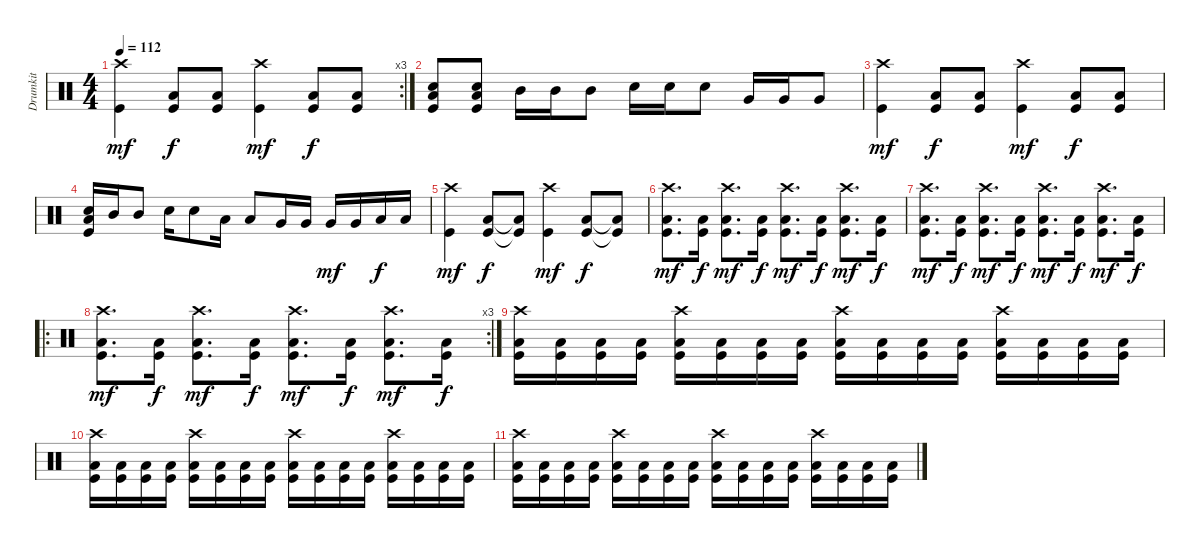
\track ("Drumkit" "Drumkit") {instrument percussion}
\staff {score}
\articulation defaults
\rc 3
\ts (4 4)
\tempo 112
\clef neutral
\ks c
("Crash high (hit)" "Kick (hit)").4{dy mf} ("Low Floor Tom (hit)" "Kick (hit)").8{dy f} ("Low Floor Tom (hit)" "Kick (hit)").8 ("Crash high (hit)" "Kick (hit)").4{dy mf} ("Low Floor Tom (hit)" "Kick (hit)").8{dy f} ("Low Floor Tom (hit)" "Kick (hit)").8 |
("Low Floor Tom (hit)" "Snare (hit) 2" "Kick (hit)").8 ("Low Floor Tom (hit)" "Snare (hit) 2" "Kick (hit)").8 "Mid Tom (hit)".16 "Mid Tom (hit)".16 "Mid Tom (hit)".8 "Snare (hit) 2".16 "Snare (hit) 2".16 "Snare (hit) 2".8 "Very Low Tom (hit)".16 "Very Low Tom (hit)".16 "Very Low Tom (hit)".8 |
("Crash high (hit)" "Kick (hit)").4{dy mf} ("Low Floor Tom (hit)" "Kick (hit)").8{dy f} ("Low Floor Tom (hit)" "Kick (hit)").8 ("Crash high (hit)" "Kick (hit)").4{dy mf} ("Low Floor Tom (hit)" "Kick (hit)").8{dy f} ("Low Floor Tom (hit)" "Kick (hit)").8 |
("Snare (hit) 2" "Low Floor Tom (hit)" "Kick (hit)").16 "Mid Tom (hit)".16 "Mid Tom (hit)".8 "Snare (hit) 2".16 "Snare (hit) 2".8 "Low Tom (hit)".16 "Low Tom (hit)".8 "Very Low Tom (hit)".16 "Very Low Tom (hit)".16 "Very Low Tom (hit)".16{dy mf} "Very Low Tom (hit)".16 "Low Floor Tom (hit)".16{dy f} "Low Floor Tom (hit)".16 |
("Crash high (hit)" "Kick (hit)").4{dy mf} ("Low Floor Tom (hit)" "Kick (hit)").8{dy f} ("Low Floor Tom (hit)"{t} "Kick (hit)"{t}).8 ("Crash high (hit)" "Kick (hit)").4{dy mf} ("Low Floor Tom (hit)" "Kick (hit)").8{dy f} ("Low Floor Tom (hit)"{t} "Kick (hit)"{t}).8 |
("Crash high (hit)" "Low Floor Tom (hit)" "Kick (hit)").8{d dy mf} ("Low Floor Tom (hit)" "Kick (hit)").16{dy f} ("Crash high (hit)" "Low Floor Tom (hit)" "Kick (hit)").8{d dy mf} ("Low Floor Tom (hit)" "Kick (hit)").16{dy f} ("Crash high (hit)" "Low Floor Tom (hit)" "Kick (hit)").8{d dy mf} ("Low Floor Tom (hit)" "Kick (hit)").16{dy f} ("Crash high (hit)" "Low Floor Tom (hit)" "Kick (hit)").8{d dy mf} ("Low Floor Tom (hit)" "Kick (hit)").16{dy f} |
("Crash high (hit)" "Low Floor Tom (hit)" "Kick (hit)").8{d dy mf} ("Low Floor Tom (hit)" "Kick (hit)").16{dy f} ("Crash high (hit)" "Low Floor Tom (hit)" "Kick (hit)").8{d dy mf} ("Low Floor Tom (hit)" "Kick (hit)").16{dy f} ("Crash high (hit)" "Low Floor Tom (hit)" "Kick (hit)").8{d dy mf} ("Low Floor Tom (hit)" "Kick (hit)").16{dy f} ("Crash high (hit)" "Low Floor Tom (hit)" "Kick (hit)").8{d dy mf} ("Low Floor Tom (hit)" "Kick (hit)").16{dy f} |
\ro
\rc 3
("Crash high (hit)" "Low Floor Tom (hit)" "Kick (hit)").8{d dy mf} ("Low Floor Tom (hit)" "Kick (hit)").16{dy f} ("Crash high (hit)" "Low Floor Tom (hit)" "Kick (hit)").8{d dy mf} ("Low Floor Tom (hit)" "Kick (hit)").16{dy f} ("Crash high (hit)" "Low Floor Tom (hit)" "Kick (hit)").8{d dy mf} ("Low Floor Tom (hit)" "Kick (hit)").16{dy f} ("Crash high (hit)" "Low Floor Tom (hit)" "Kick (hit)").8{d dy mf} ("Low Floor Tom (hit)" "Kick (hit)").16{dy f} |
("Crash high (hit)" "Low Floor Tom (hit)" "Kick (hit)").16 ("Low Floor Tom (hit)" "Kick (hit)").16 ("Low Floor Tom (hit)" "Kick (hit)").16 ("Low Floor Tom (hit)" "Kick (hit)").16 ("Crash high (hit)" "Low Floor Tom (hit)" "Kick (hit)").16 ("Low Floor Tom (hit)" "Kick (hit)").16 ("Low Floor Tom (hit)" "Kick (hit)").16 ("Low Floor Tom (hit)" "Kick (hit)").16 ("Crash high (hit)" "Low Floor Tom (hit)" "Kick (hit)").16 ("Low Floor Tom (hit)" "Kick (hit)").16 ("Low Floor Tom (hit)" "Kick (hit)").16 ("Low Floor Tom (hit)" "Kick (hit)").16 ("Crash high (hit)" "Low Floor Tom (hit)" "Kick (hit)").16 ("Low Floor Tom (hit)" "Kick (hit)").16 ("Low Floor Tom (hit)" "Kick (hit)").16 ("Low Floor Tom (hit)" "Kick (hit)").16 |
("Crash high (hit)" "Low Floor Tom (hit)" "Kick (hit)").16 ("Low Floor Tom (hit)" "Kick (hit)").16 ("Low Floor Tom (hit)" "Kick (hit)").16 ("Low Floor Tom (hit)" "Kick (hit)").16 ("Crash high (hit)" "Low Floor Tom (hit)" "Kick (hit)").16 ("Low Floor Tom (hit)" "Kick (hit)").16 ("Low Floor Tom (hit)" "Kick (hit)").16 ("Low Floor Tom (hit)" "Kick (hit)").16 ("Crash high (hit)" "Low Floor Tom (hit)" "Kick (hit)").16 ("Low Floor Tom (hit)" "Kick (hit)").16 ("Low Floor Tom (hit)" "Kick (hit)").16 ("Low Floor Tom (hit)" "Kick (hit)").16 ("Crash high (hit)" "Low Floor Tom (hit)" "Kick (hit)").16 ("Low Floor Tom (hit)" "Kick (hit)").16 ("Low Floor Tom (hit)" "Kick (hit)").16 ("Low Floor Tom (hit)" "Kick (hit)").16 |
("Crash high (hit)" "Low Floor Tom (hit)" "Kick (hit)").16 ("Low Floor Tom (hit)" "Kick (hit)").16 ("Low Floor Tom (hit)" "Kick (hit)").16 ("Low Floor Tom (hit)" "Kick (hit)").16 ("Crash high (hit)" "Low Floor Tom (hit)" "Kick (hit)").16 ("Low Floor Tom (hit)" "Kick (hit)").16 ("Low Floor Tom (hit)" "Kick (hit)").16 ("Low Floor Tom (hit)" "Kick (hit)").16 ("Crash high (hit)" "Low Floor Tom (hit)" "Kick (hit)").16 ("Low Floor Tom (hit)" "Kick (hit)").16 ("Low Floor Tom (hit)" "Kick (hit)").16 ("Low Floor Tom (hit)" "Kick (hit)").16 ("Crash high (hit)" "Low Floor Tom (hit)" "Kick (hit)").16 ("Low Floor Tom (hit)" "Kick (hit)").16 ("Low Floor Tom (hit)" "Kick (hit)").16 ("Low Floor Tom (hit)" "Kick (hit)").16
